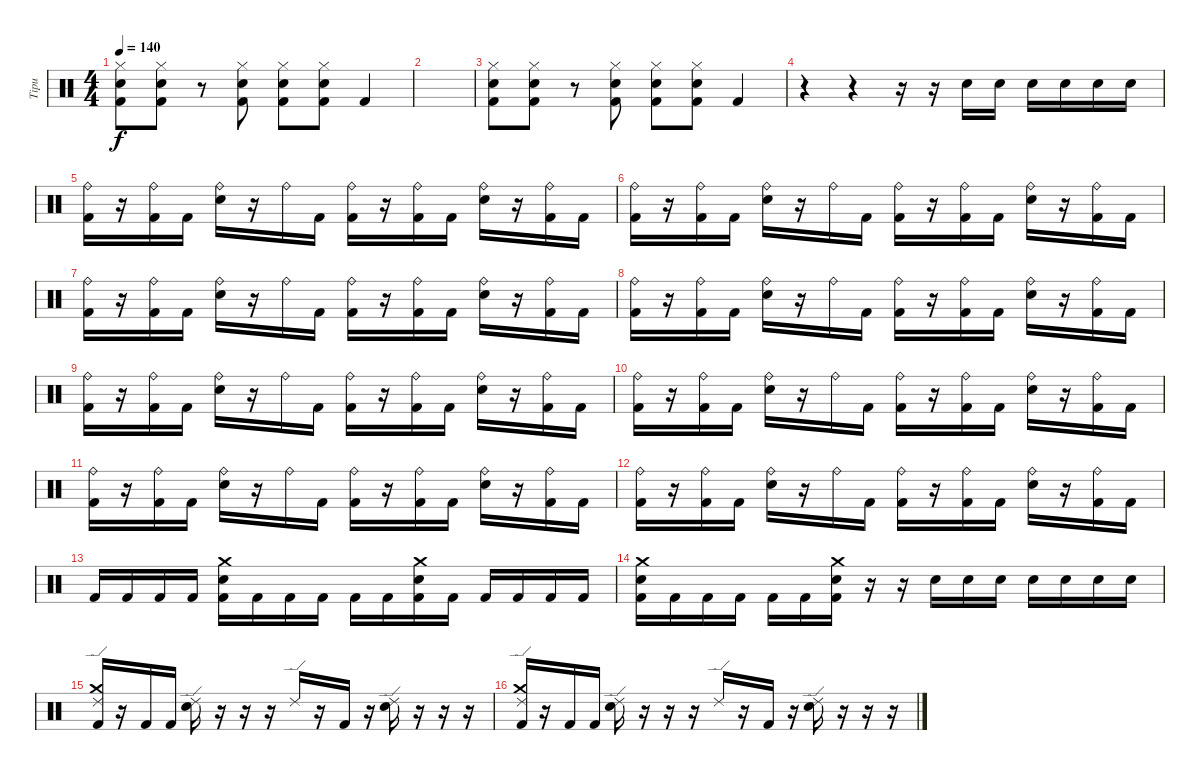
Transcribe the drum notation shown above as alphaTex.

\track ("Tipu" "Tipu") {instrument percussion}
\staff {score}
\articulation defaults
\ts (4 4)
\tempo 140
\clef neutral
\ks c
("Hi-Hat (closed)" "Kick (hit) 2" "Electric Snare (hit)").8{dy f} ("Hi-Hat (closed)" "Kick (hit) 2" "Electric Snare (hit)").8 r.8 ("Hi-Hat (closed)" "Kick (hit) 2" "Electric Snare (hit)").8 ("Hi-Hat (closed)" "Kick (hit) 2" "Electric Snare (hit)").8 ("Hi-Hat (closed)" "Kick (hit) 2" "Electric Snare (hit)").8 "Kick (hit) 2".4 |
|
("Hi-Hat (closed)" "Kick (hit) 2" "Electric Snare (hit)").8 ("Hi-Hat (closed)" "Kick (hit) 2" "Electric Snare (hit)").8 r.8 ("Hi-Hat (closed)" "Kick (hit) 2" "Electric Snare (hit)").8 ("Hi-Hat (closed)" "Kick (hit) 2" "Electric Snare (hit)").8 ("Hi-Hat (closed)" "Kick (hit) 2" "Electric Snare (hit)").8 "Kick (hit) 2".4 |
r.4 r.4 r.16 r.16 "Electric Snare (hit)".16 "Electric Snare (hit)".16 "Electric Snare (hit)".16 "Electric Snare (hit)".16 "Electric Snare (hit)".16 "Electric Snare (hit)".16 |
("Ride (bell)" "Kick (hit) 2").16 r.16 ("Ride (bell)" "Kick (hit) 2").16 "Kick (hit) 2".16 ("Ride (bell)" "Electric Snare (hit)").16 r.16 "Ride (bell)".16 "Kick (hit) 2".16 ("Ride (bell)" "Kick (hit) 2").16 r.16 ("Ride (bell)" "Kick (hit) 2").16 "Kick (hit) 2".16 ("Ride (bell)" "Electric Snare (hit)").16 r.16 ("Ride (bell)" "Kick (hit) 2").16 "Kick (hit) 2".16 |
("Ride (bell)" "Kick (hit) 2").16 r.16 ("Ride (bell)" "Kick (hit) 2").16 "Kick (hit) 2".16 ("Ride (bell)" "Electric Snare (hit)").16 r.16 "Ride (bell)".16 "Kick (hit) 2".16 ("Ride (bell)" "Kick (hit) 2").16 r.16 ("Ride (bell)" "Kick (hit) 2").16 "Kick (hit) 2".16 ("Ride (bell)" "Electric Snare (hit)").16 r.16 ("Ride (bell)" "Kick (hit) 2").16 "Kick (hit) 2".16 |
("Ride (bell)" "Kick (hit) 2").16 r.16 ("Ride (bell)" "Kick (hit) 2").16 "Kick (hit) 2".16 ("Ride (bell)" "Electric Snare (hit)").16 r.16 "Ride (bell)".16 "Kick (hit) 2".16 ("Ride (bell)" "Kick (hit) 2").16 r.16 ("Ride (bell)" "Kick (hit) 2").16 "Kick (hit) 2".16 ("Ride (bell)" "Electric Snare (hit)").16 r.16 ("Ride (bell)" "Kick (hit) 2").16 "Kick (hit) 2".16 |
("Ride (bell)" "Kick (hit) 2").16 r.16 ("Ride (bell)" "Kick (hit) 2").16 "Kick (hit) 2".16 ("Ride (bell)" "Electric Snare (hit)").16 r.16 "Ride (bell)".16 "Kick (hit) 2".16 ("Ride (bell)" "Kick (hit) 2").16 r.16 ("Ride (bell)" "Kick (hit) 2").16 "Kick (hit) 2".16 ("Ride (bell)" "Electric Snare (hit)").16 r.16 ("Ride (bell)" "Kick (hit) 2").16 "Kick (hit) 2".16 |
("Ride (bell)" "Kick (hit) 2").16 r.16 ("Ride (bell)" "Kick (hit) 2").16 "Kick (hit) 2".16 ("Ride (bell)" "Electric Snare (hit)").16 r.16 "Ride (bell)".16 "Kick (hit) 2".16 ("Ride (bell)" "Kick (hit) 2").16 r.16 ("Ride (bell)" "Kick (hit) 2").16 "Kick (hit) 2".16 ("Ride (bell)" "Electric Snare (hit)").16 r.16 ("Ride (bell)" "Kick (hit) 2").16 "Kick (hit) 2".16 |
("Ride (bell)" "Kick (hit) 2").16 r.16 ("Ride (bell)" "Kick (hit) 2").16 "Kick (hit) 2".16 ("Ride (bell)" "Electric Snare (hit)").16 r.16 "Ride (bell)".16 "Kick (hit) 2".16 ("Ride (bell)" "Kick (hit) 2").16 r.16 ("Ride (bell)" "Kick (hit) 2").16 "Kick (hit) 2".16 ("Ride (bell)" "Electric Snare (hit)").16 r.16 ("Ride (bell)" "Kick (hit) 2").16 "Kick (hit) 2".16 |
("Ride (bell)" "Kick (hit) 2").16 r.16 ("Ride (bell)" "Kick (hit) 2").16 "Kick (hit) 2".16 ("Ride (bell)" "Electric Snare (hit)").16 r.16 "Ride (bell)".16 "Kick (hit) 2".16 ("Ride (bell)" "Kick (hit) 2").16 r.16 ("Ride (bell)" "Kick (hit) 2").16 "Kick (hit) 2".16 ("Ride (bell)" "Electric Snare (hit)").16 r.16 ("Ride (bell)" "Kick (hit) 2").16 "Kick (hit) 2".16 |
("Ride (bell)" "Kick (hit) 2").16 r.16 ("Ride (bell)" "Kick (hit) 2").16 "Kick (hit) 2".16 ("Ride (bell)" "Electric Snare (hit)").16 r.16 "Ride (bell)".16 "Kick (hit) 2".16 ("Ride (bell)" "Kick (hit) 2").16 r.16 ("Ride (bell)" "Kick (hit) 2").16 "Kick (hit) 2".16 ("Ride (bell)" "Electric Snare (hit)").16 r.16 ("Ride (bell)" "Kick (hit) 2").16 "Kick (hit) 2".16 |
"Kick (hit) 2".16 "Kick (hit) 2".16 "Kick (hit) 2".16 "Kick (hit) 2".16 ("Electric Snare (hit)" "Crash medium (hit)" "Kick (hit) 2").16 "Kick (hit) 2".16 "Kick (hit) 2".16 "Kick (hit) 2".16 "Kick (hit) 2".16 "Kick (hit) 2".16 ("Electric Snare (hit)" "Crash medium (hit)" "Kick (hit) 2").16 "Kick (hit) 2".16 "Kick (hit) 2".16 "Kick (hit) 2".16 "Kick (hit) 2".16 "Kick (hit) 2".16 |
("Electric Snare (hit)" "Crash medium (hit)" "Kick (hit) 2").16 "Kick (hit) 2".16 "Kick (hit) 2".16 "Kick (hit) 2".16 "Kick (hit) 2".16 "Kick (hit) 2".16 ("Electric Snare (hit)" "Crash medium (hit)" "Kick (hit) 2").16 r.16 r.16 "Electric Snare (hit)".16 "Electric Snare (hit)".16 "Electric Snare (hit)".16 "Electric Snare (hit)".16 "Electric Snare (hit)".16 "Electric Snare (hit)".16 "Electric Snare (hit)".16 |
("Kick (hit) 2" "Ride (edge) 2" "Crash medium (hit)").16 r.16 "Kick (hit) 2".16 "Kick (hit) 2".16 ("Electric Snare (hit)" "Ride (edge) 2").16 r.16 r.16 r.16 "Ride (edge) 2".16 r.16 "Kick (hit) 2".16 r.16 ("Electric Snare (hit)" "Ride (edge) 2").16 r.16 r.16 r.16 |
("Kick (hit) 2" "Ride (edge) 2" "Crash medium (hit)").16 r.16 "Kick (hit) 2".16 "Kick (hit) 2".16 ("Electric Snare (hit)" "Ride (edge) 2").16 r.16 r.16 r.16 "Ride (edge) 2".16 r.16 "Kick (hit) 2".16 r.16 ("Electric Snare (hit)" "Ride (edge) 2").16 r.16 r.16 r.16
